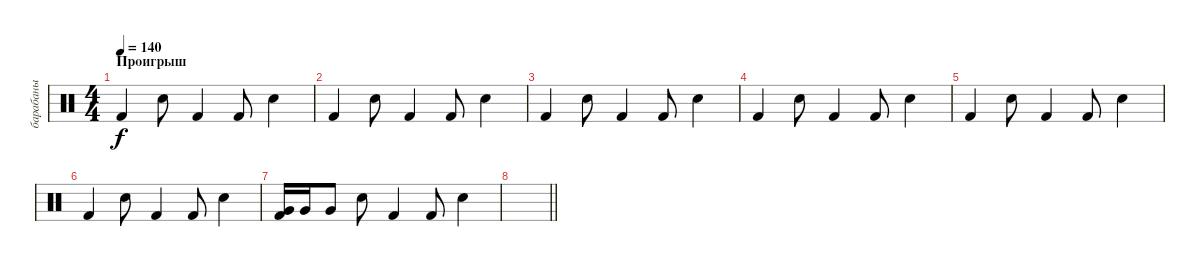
\track ("барабаны" "барабаны") {instrument percussion}
\staff {score}
\articulation defaults
\ts (4 4)
\section ("" "Проигрыш")
\tempo 140
\clef neutral
\ks c "Kick (hit) 2".4{dy f} "Electric Snare (hit)".8 "Kick (hit) 2".4 "Kick (hit) 2".8 "Electric Snare (hit)".4
|
"Kick (hit) 2".4 "Electric Snare (hit)".8 "Kick (hit) 2".4 "Kick (hit) 2".8 "Electric Snare (hit)".4 |
"Kick (hit) 2".4 "Electric Snare (hit)".8 "Kick (hit) 2".4 "Kick (hit) 2".8 "Electric Snare (hit)".4 |
"Kick (hit) 2".4 "Electric Snare (hit)".8 "Kick (hit) 2".4 "Kick (hit) 2".8 "Electric Snare (hit)".4 |
"Kick (hit) 2".4 "Electric Snare (hit)".8 "Kick (hit) 2".4 "Kick (hit) 2".8 "Electric Snare (hit)".4 |
"Kick (hit) 2".4 "Electric Snare (hit)".8 "Kick (hit) 2".4 "Kick (hit) 2".8 "Electric Snare (hit)".4 |
("Kick (hit) 2" "Very Low Tom (hit)").16 "Very Low Tom (hit)".16 "Very Low Tom (hit)".8 "Electric Snare (hit)".8 "Kick (hit) 2".4 "Kick (hit) 2".8 "Electric Snare (hit)".4 |
\barLineRight lightlight
